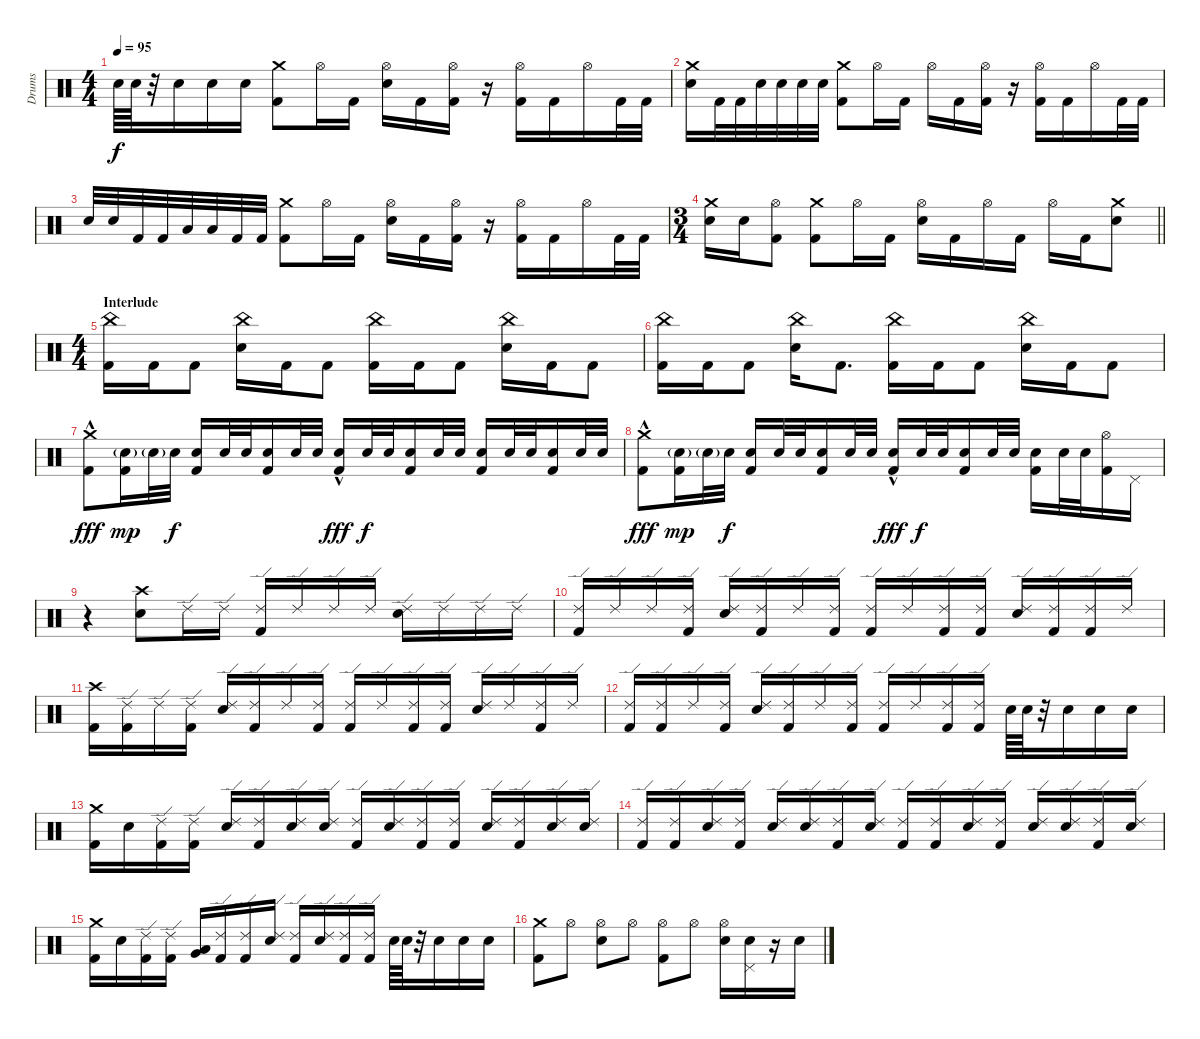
\track ("Drums" "Drums") {instrument percussion}
\staff {score}
\articulation defaults
\ts (4 4)
\tempo 95
\clef neutral
\ks c "Electric Snare (hit)".64{dy f} "Electric Snare (hit)".64
r.32 "Electric Snare (hit)".16 "Electric Snare (hit)".16 "Electric Snare (hit)".16 ("Crash medium (hit)" "Kick (hit) 2").8 "Hi-Hat (open)".16 "Kick (hit) 2".16 ("Hi-Hat (open)" "Electric Snare (hit)").16 "Kick (hit) 2".16 ("Hi-Hat (open)" "Kick (hit) 2").16 r.16 ("Hi-Hat (open)" "Kick (hit) 2").16 "Kick (hit) 2".16 "Hi-Hat (open)".16 "Kick (hit) 2".32 "Kick (hit) 2".32 |
("Crash medium (hit)" "Electric Snare (hit)").16 "Kick (hit) 2".32 "Kick (hit) 2".32 "Electric Snare (hit)".32 "Electric Snare (hit)".32 "Electric Snare (hit)".32 "Electric Snare (hit)".32 ("Crash medium (hit)" "Kick (hit) 2").8 "Hi-Hat (open)".16 "Kick (hit) 2".16 "Hi-Hat (open)".16 "Kick (hit) 2".16 ("Hi-Hat (open)" "Kick (hit) 2").16 r.16 ("Hi-Hat (open)" "Kick (hit) 2").16 "Kick (hit) 2".16 "Hi-Hat (open)".16 "Kick (hit) 2".32 "Kick (hit) 2".32 |
"Electric Snare (hit)".32 "Electric Snare (hit)".32 "Kick (hit) 2".32 "Kick (hit) 2".32 "Low Tom (hit)".32 "Low Tom (hit)".32 "Kick (hit) 2".32 "Kick (hit) 2".32 ("Crash medium (hit)" "Kick (hit) 2").8 "Hi-Hat (open)".16 "Kick (hit) 2".16 ("Hi-Hat (open)" "Electric Snare (hit)").16 "Kick (hit) 2".16 ("Hi-Hat (open)" "Kick (hit) 2").16 r.16 ("Hi-Hat (open)" "Kick (hit) 2").16 "Kick (hit) 2".16 "Hi-Hat (open)".16 "Kick (hit) 2".32 "Kick (hit) 2".32 |
\ts (3 4)
\barLineRight lightlight
("Crash medium (hit)" "Electric Snare (hit)").16 "Electric Snare (hit)".16 ("Hi-Hat (open)" "Kick (hit) 2").8 ("Crash medium (hit)" "Kick (hit) 2").8 "Hi-Hat (open)".16 "Kick (hit) 2".16 ("Hi-Hat (open)" "Electric Snare (hit)").16 "Kick (hit) 2".16 "Hi-Hat (open)".16 "Kick (hit) 2".16 "Hi-Hat (open)".16 "Kick (hit) 2".16 ("Crash medium (hit)" "Electric Snare (hit)").8 |
\ts (4 4)
\section ("" "Interlude")
("China (hit)" "Kick (hit) 2").16 "Kick (hit) 2".16 "Kick (hit) 2".8 ("China (hit)" "Electric Snare (hit)").16 "Kick (hit) 2".16 "Kick (hit) 2".8 ("China (hit)" "Kick (hit) 2").16 "Kick (hit) 2".16 "Kick (hit) 2".8 ("China (hit)" "Electric Snare (hit)").16 "Kick (hit) 2".16 "Kick (hit) 2".8 |
("China (hit)" "Kick (hit) 2").16 "Kick (hit) 2".16 "Kick (hit) 2".8 ("China (hit)" "Electric Snare (hit)").16 "Kick (hit) 2".8{d} ("China (hit)" "Kick (hit) 2").16 "Kick (hit) 2".16 "Kick (hit) 2".8 ("China (hit)" "Electric Snare (hit)").16 "Kick (hit) 2".16 "Kick (hit) 2".8 |
("Crash medium (hit)"{hac} "Kick (hit) 2").8{dy fff} ("Electric Snare (hit)"{g} "Kick (hit) 2").16{dy mp} "Electric Snare (hit)"{g}.32 "Electric Snare (hit)".32{dy f volume 8} ("Electric Snare (hit)" "Kick (hit) 2").16{volume 16} "Electric Snare (hit)".32 "Electric Snare (hit)".32 ("Electric Snare (hit)" "Kick (hit) 2").16 "Electric Snare (hit)".32 "Electric Snare (hit)".32 ("Electric Snare (hit)"{hac} "Kick (hit) 2").16{dy fff} "Electric Snare (hit)".32{dy f} "Electric Snare (hit)".32 ("Electric Snare (hit)" "Kick (hit) 2").16 "Electric Snare (hit)".32 "Electric Snare (hit)".32 ("Electric Snare (hit)" "Kick (hit) 2").16 "Electric Snare (hit)".32 "Electric Snare (hit)".32 ("Electric Snare (hit)" "Kick (hit) 2").16 "Electric Snare (hit)".32 "Electric Snare (hit)".32 |
("Crash medium (hit)"{hac} "Kick (hit) 2").8{dy fff} ("Electric Snare (hit)"{g} "Kick (hit) 2").16{dy mp} "Electric Snare (hit)"{g}.32 "Electric Snare (hit)".32{dy f volume 8} ("Electric Snare (hit)" "Kick (hit) 2").16{volume 16} "Electric Snare (hit)".32 "Electric Snare (hit)".32 ("Electric Snare (hit)" "Kick (hit) 2").16 "Electric Snare (hit)".32 "Electric Snare (hit)".32 ("Electric Snare (hit)"{hac} "Kick (hit) 2").16{dy fff} "Electric Snare (hit)".32{dy f} "Electric Snare (hit)".32 ("Electric Snare (hit)" "Kick (hit) 2").16 "Electric Snare (hit)".32 "Electric Snare (hit)".32 ("Electric Snare (hit)" "Kick (hit) 2").16 "Electric Snare (hit)".32 "Electric Snare (hit)".32 ("Hi-Hat (open)" "Kick (hit) 2").16 "Pedal Hi-Hat (hit)".16 |
r.4 ("Crash high (hit)" "Electric Snare (hit)").8 "Ride (edge) 2".16 "Ride (edge) 2".16 ("Ride (edge) 2" "Kick (hit) 2").16 "Ride (edge) 2".16 "Ride (edge) 2".16 "Ride (edge) 2".16 ("Ride (edge) 2" "Electric Snare (hit)").16 "Ride (edge) 2".16 "Ride (edge) 2".16 "Ride (edge) 2".16 |
("Ride (edge) 2" "Kick (hit) 2").16 "Ride (edge) 2".16 "Ride (edge) 2".16 ("Ride (edge) 2" "Kick (hit) 2").16 ("Ride (edge) 2" "Electric Snare (hit)").16 ("Ride (edge) 2" "Kick (hit) 2").16 "Ride (edge) 2".16 ("Ride (edge) 2" "Kick (hit) 2").16 ("Ride (edge) 2" "Kick (hit) 2").16 "Ride (edge) 2".16 ("Ride (edge) 2" "Kick (hit) 2").16 ("Ride (edge) 2" "Kick (hit) 2").16 ("Ride (edge) 2" "Electric Snare (hit)").16 ("Ride (edge) 2" "Kick (hit) 2").16 ("Ride (edge) 2" "Kick (hit) 2").16 "Ride (edge) 2".16 |
("Crash high (hit)" "Kick (hit) 2").16 ("Ride (edge) 2" "Kick (hit) 2").16 "Ride (edge) 2".16 ("Ride (edge) 2" "Kick (hit) 2").16 ("Ride (edge) 2" "Electric Snare (hit)").16 ("Ride (edge) 2" "Kick (hit) 2").16 "Ride (edge) 2".16 ("Ride (edge) 2" "Kick (hit) 2").16 ("Ride (edge) 2" "Kick (hit) 2").16 "Ride (edge) 2".16 ("Ride (edge) 2" "Kick (hit) 2").16 ("Ride (edge) 2" "Kick (hit) 2").16 ("Ride (edge) 2" "Electric Snare (hit)").16 "Ride (edge) 2".16 ("Ride (edge) 2" "Kick (hit) 2").16 "Ride (edge) 2".16 |
("Ride (edge) 2" "Kick (hit) 2").16 ("Ride (edge) 2" "Kick (hit) 2").16 "Ride (edge) 2".16 ("Ride (edge) 2" "Kick (hit) 2").16 ("Ride (edge) 2" "Electric Snare (hit)").16 ("Ride (edge) 2" "Kick (hit) 2").16 "Ride (edge) 2".16 ("Ride (edge) 2" "Kick (hit) 2").16 ("Ride (edge) 2" "Kick (hit) 2").16 "Ride (edge) 2".16 ("Ride (edge) 2" "Kick (hit) 2").16 ("Ride (edge) 2" "Kick (hit) 2").16 "Electric Snare (hit)".64 "Electric Snare (hit)".64 r.32 "Electric Snare (hit)".16 "Electric Snare (hit)".16 "Electric Snare (hit)".16 |
("Crash medium (hit)" "Kick (hit) 2").16 "Electric Snare (hit)".16 ("Ride (edge) 2" "Kick (hit) 2").16 ("Ride (edge) 2" "Kick (hit) 2").16 ("Ride (edge) 2" "Electric Snare (hit)").16 ("Ride (edge) 2" "Kick (hit) 2").16 ("Ride (edge) 2" "Electric Snare (hit)").16 ("Ride (edge) 2" "Electric Snare (hit)").16 ("Ride (edge) 2" "Kick (hit) 2").16 ("Ride (edge) 2" "Electric Snare (hit)").16 ("Ride (edge) 2" "Kick (hit) 2").16 ("Ride (edge) 2" "Kick (hit) 2").16 ("Ride (edge) 2" "Electric Snare (hit)").16 ("Ride (edge) 2" "Kick (hit) 2").16 ("Ride (edge) 2" "Electric Snare (hit)").16 ("Ride (edge) 2" "Electric Snare (hit)").16 |
("Ride (edge) 2" "Kick (hit) 2").16 ("Ride (edge) 2" "Kick (hit) 2").16 ("Ride (edge) 2" "Electric Snare (hit)").16 ("Ride (edge) 2" "Kick (hit) 2").16 ("Ride (edge) 2" "Electric Snare (hit)").16 ("Ride (edge) 2" "Electric Snare (hit)").16 ("Ride (edge) 2" "Kick (hit) 2").16 ("Ride (edge) 2" "Electric Snare (hit)").16 ("Ride (edge) 2" "Kick (hit) 2").16 ("Ride (edge) 2" "Kick (hit) 2").16 ("Ride (edge) 2" "Electric Snare (hit)").16 ("Ride (edge) 2" "Kick (hit) 2").16 ("Ride (edge) 2" "Electric Snare (hit)").16 ("Ride (edge) 2" "Electric Snare (hit)").16 ("Ride (edge) 2" "Kick (hit) 2").16 ("Ride (edge) 2" "Electric Snare (hit)").16 |
("Crash medium (hit)" "Kick (hit) 2").16 "Electric Snare (hit)".16 ("Ride (edge) 2" "Kick (hit) 2").16 ("Ride (edge) 2" "Kick (hit) 2").16 ("Low Tom (hit)" "Very Low Tom (hit)").16 ("Ride (edge) 2" "Kick (hit) 2").16 ("Ride (edge) 2" "Kick (hit) 2").16 ("Ride (edge) 2" "Electric Snare (hit)").16 ("Ride (edge) 2" "Kick (hit) 2").16 ("Ride (edge) 2" "Electric Snare (hit)").16 ("Ride (edge) 2" "Kick (hit) 2").16 ("Ride (edge) 2" "Kick (hit) 2").16 "Electric Snare (hit)".64 "Electric Snare (hit)".64 r.32 "Electric Snare (hit)".16 "Electric Snare (hit)".16 "Electric Snare (hit)".16 |
("Crash medium (hit)" "Kick (hit) 2").8 "Hi-Hat (open)".8 ("Hi-Hat (open)" "Electric Snare (hit)").8 "Hi-Hat (open)".8 ("Hi-Hat (open)" "Kick (hit) 2").8 "Hi-Hat (open)".8 ("Hi-Hat (open)" "Electric Snare (hit)").16 ("Electric Snare (hit)" "Pedal Hi-Hat (hit)").16 r.16 "Electric Snare (hit)".16
